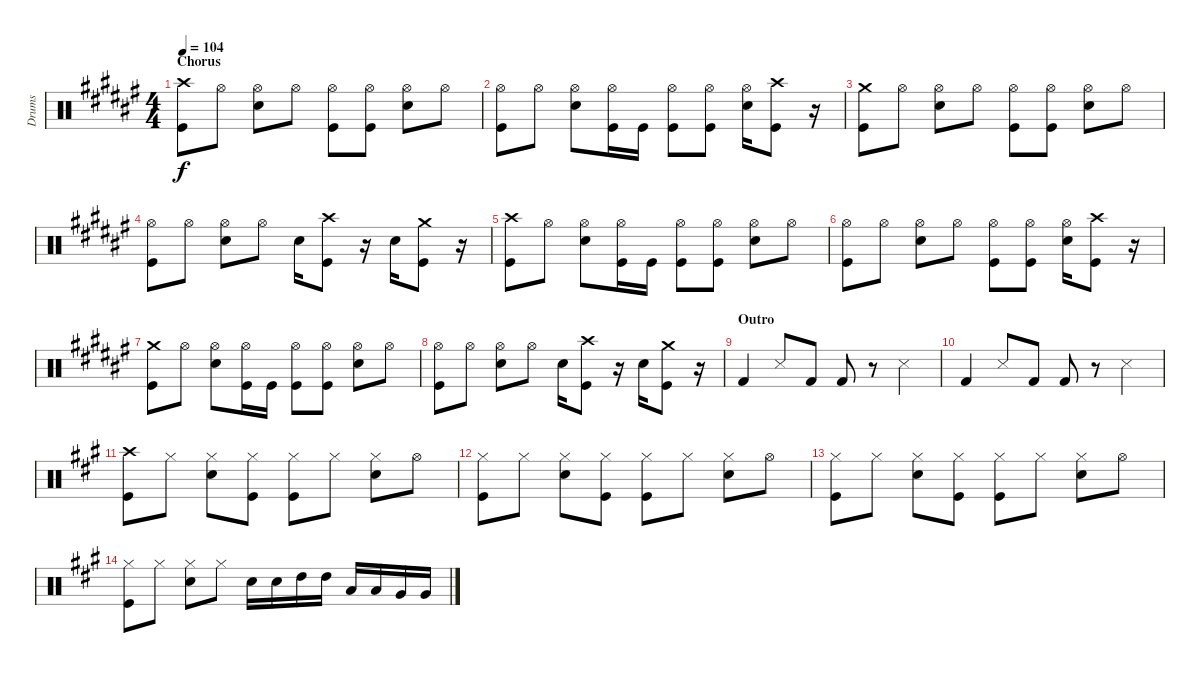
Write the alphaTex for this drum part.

\track ("Drums" "Drums") {instrument percussion}
\staff {score}
\articulation defaults
\ts (4 4)
\section ("" "Chorus")
\tempo 104
\clef neutral
\ks f#
("Crash high (hit)" "Kick (hit)").8{dy f} "Hi-Hat (open)".8 ("Hi-Hat (open)" "Snare (hit) 2").8 "Hi-Hat (open)".8 ("Hi-Hat (open)" "Kick (hit)").8 ("Hi-Hat (open)" "Kick (hit)").8 ("Hi-Hat (open)" "Snare (hit) 2").8 "Hi-Hat (open)".8 |
("Hi-Hat (open)" "Kick (hit)").8 "Hi-Hat (open)".8 ("Hi-Hat (open)" "Snare (hit) 2").8 ("Hi-Hat (open)" "Kick (hit)").16 "Kick (hit)".16 ("Hi-Hat (open)" "Kick (hit)").8 ("Hi-Hat (open)" "Kick (hit)").8 ("Hi-Hat (open)" "Snare (hit) 2").16 ("Crash high (hit)" "Kick (hit)").8 r.16 |
("Crash medium (hit)" "Kick (hit)").8 "Hi-Hat (open)".8 ("Hi-Hat (open)" "Snare (hit) 2").8 "Hi-Hat (open)".8 ("Hi-Hat (open)" "Kick (hit)").8 ("Hi-Hat (open)" "Kick (hit)").8 ("Hi-Hat (open)" "Snare (hit) 2").8 "Hi-Hat (open)".8 |
("Hi-Hat (open)" "Kick (hit)").8 "Hi-Hat (open)".8 ("Hi-Hat (open)" "Snare (hit) 2").8 "Hi-Hat (open)".8 "Snare (hit) 2".16 ("Crash high (hit)" "Kick (hit)").8 r.16 "Snare (hit) 2".16 ("Crash medium (hit)" "Kick (hit)").8 r.16 |
("Crash high (hit)" "Kick (hit)").8 "Hi-Hat (open)".8 ("Hi-Hat (open)" "Snare (hit) 2").8 ("Hi-Hat (open)" "Kick (hit)").16 "Kick (hit)".16 ("Hi-Hat (open)" "Kick (hit)").8 ("Hi-Hat (open)" "Kick (hit)").8 ("Hi-Hat (open)" "Snare (hit) 2").8 "Hi-Hat (open)".8 |
("Hi-Hat (open)" "Kick (hit)").8 "Hi-Hat (open)".8 ("Hi-Hat (open)" "Snare (hit) 2").8 "Hi-Hat (open)".8 ("Hi-Hat (open)" "Kick (hit)").8 ("Hi-Hat (open)" "Kick (hit)").8 ("Hi-Hat (open)" "Snare (hit) 2").16 ("Crash high (hit)" "Kick (hit)").8 r.16 |
("Crash medium (hit)" "Kick (hit)").8 "Hi-Hat (open)".8 ("Hi-Hat (open)" "Snare (hit) 2").8 ("Hi-Hat (open)" "Kick (hit)").16 "Kick (hit)".16 ("Hi-Hat (open)" "Kick (hit)").8 ("Hi-Hat (open)" "Kick (hit)").8 ("Hi-Hat (open)" "Snare (hit) 2").8 "Hi-Hat (open)".8 |
("Hi-Hat (open)" "Kick (hit)").8 "Hi-Hat (open)".8 ("Hi-Hat (open)" "Snare (hit) 2").8 "Hi-Hat (open)".8 "Snare (hit) 2".16 ("Crash high (hit)" "Kick (hit)").8 r.16 "Snare (hit) 2".16 ("Crash medium (hit)" "Kick (hit)").8 r.16 |
\section ("" "Outro")
"Kick (hit) 2".4 "Snare (side stick) 3".8 "Kick (hit) 2".8 "Kick (hit) 2".8 r.8 "Snare (side stick) 3".4 |
"Kick (hit) 2".4 "Snare (side stick) 3".8 "Kick (hit) 2".8 "Kick (hit) 2".8 r.8 "Snare (side stick) 3".4 |
\ks a
("Crash high (hit)" "Kick (hit)").8{volume 8} "Hi-Hat (closed)".8 ("Hi-Hat (closed)" "Snare (hit) 2").8 ("Hi-Hat (closed)" "Kick (hit)").8 ("Hi-Hat (closed)" "Kick (hit)").8 "Hi-Hat (closed)".8 ("Hi-Hat (closed)" "Snare (hit) 2").8 "Hi-Hat (open)".8 |
("Hi-Hat (closed)" "Kick (hit)").8 "Hi-Hat (closed)".8 ("Hi-Hat (closed)" "Snare (hit) 2").8 ("Hi-Hat (closed)" "Kick (hit)").8 ("Hi-Hat (closed)" "Kick (hit)").8 "Hi-Hat (closed)".8 ("Hi-Hat (closed)" "Snare (hit) 2").8 "Hi-Hat (open)".8 |
("Hi-Hat (closed)" "Kick (hit)").8{volume 4} "Hi-Hat (closed)".8 ("Hi-Hat (closed)" "Snare (hit) 2").8 ("Hi-Hat (closed)" "Kick (hit)").8 ("Hi-Hat (closed)" "Kick (hit)").8 "Hi-Hat (closed)".8 ("Hi-Hat (closed)" "Snare (hit) 2").8 "Hi-Hat (open)".8 |
("Hi-Hat (closed)" "Kick (hit)").8 "Hi-Hat (closed)".8 ("Hi-Hat (closed)" "Snare (hit) 2").8 "Hi-Hat (closed)".8 "Snare (hit) 2".16 "Snare (hit) 2".16 "High Tom (hit)".16 "High Tom (hit)".16 "Low Tom (hit)".16 "Low Tom (hit)".16 "Very Low Tom (hit)".16 "Very Low Tom (hit)".16
